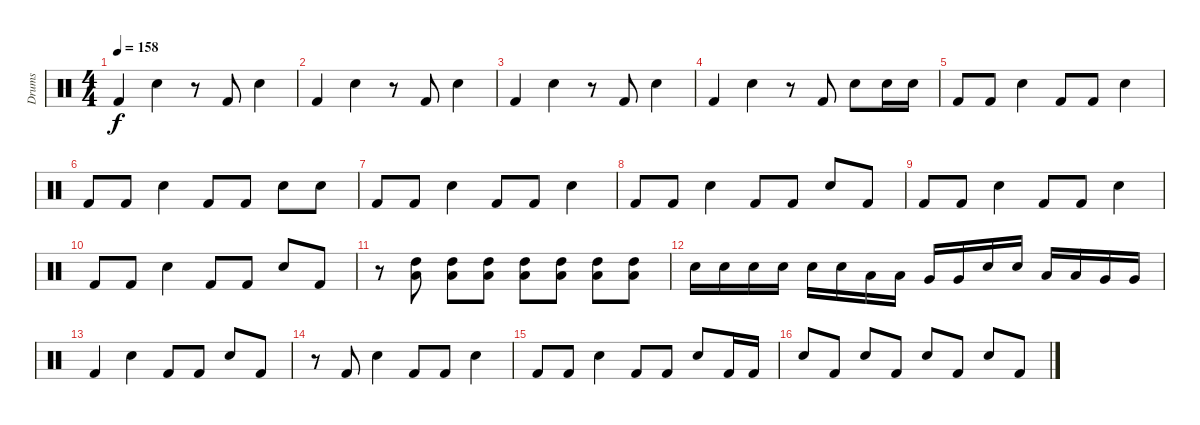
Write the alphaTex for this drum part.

\track ("Drums" "Drums") {instrument percussion}
\staff {score}
\articulation defaults
\ts (4 4)
\tempo 158
\clef neutral
\ks c "Kick (hit) 2".4{dy f} "Snare (hit) 2".4
r.8 "Kick (hit) 2".8 "Snare (hit) 2".4 |
"Kick (hit) 2".4 "Snare (hit) 2".4 r.8 "Kick (hit) 2".8 "Snare (hit) 2".4 |
"Kick (hit) 2".4 "Snare (hit) 2".4 r.8 "Kick (hit) 2".8 "Snare (hit) 2".4 |
"Kick (hit) 2".4 "Snare (hit) 2".4 r.8 "Kick (hit) 2".8 "Snare (hit) 2".8 "Snare (hit) 2".16 "Snare (hit) 2".16 |
"Kick (hit) 2".8 "Kick (hit) 2".8 "Snare (hit) 2".4 "Kick (hit) 2".8 "Kick (hit) 2".8 "Snare (hit) 2".4 |
"Kick (hit) 2".8 "Kick (hit) 2".8 "Snare (hit) 2".4 "Kick (hit) 2".8 "Kick (hit) 2".8 "Snare (hit) 2".8 "Snare (hit) 2".8 |
"Kick (hit) 2".8 "Kick (hit) 2".8 "Snare (hit) 2".4 "Kick (hit) 2".8 "Kick (hit) 2".8 "Snare (hit) 2".4 |
"Kick (hit) 2".8 "Kick (hit) 2".8 "Snare (hit) 2".4 "Kick (hit) 2".8 "Kick (hit) 2".8 "Snare (hit) 2".8 "Kick (hit) 2".8 |
"Kick (hit) 2".8 "Kick (hit) 2".8 "Snare (hit) 2".4 "Kick (hit) 2".8 "Kick (hit) 2".8 "Snare (hit) 2".4 |
"Kick (hit) 2".8 "Kick (hit) 2".8 "Snare (hit) 2".4 "Kick (hit) 2".8 "Kick (hit) 2".8 "Snare (hit) 2".8 "Kick (hit) 2".8 |
r.8 ("High Tom (hit)" "Low Tom (hit)").8 ("Low Tom (hit)" "High Tom (hit)").8 ("Low Tom (hit)" "High Tom (hit)").8 ("Low Tom (hit)" "High Tom (hit)").8 ("Low Tom (hit)" "High Tom (hit)").8 ("Low Tom (hit)" "High Tom (hit)").8 ("Low Tom (hit)" "High Tom (hit)").8 |
"Snare (hit) 2".16 "Snare (hit) 2".16 "Snare (hit) 2".16 "Snare (hit) 2".16 "Snare (hit) 2".16 "Snare (hit) 2".16 "Low Tom (hit)".16 "Low Tom (hit)".16 "Very Low Tom (hit)".16 "Very Low Tom (hit)".16 "Snare (hit) 2".16 "Snare (hit) 2".16 "Low Tom (hit)".16 "Low Tom (hit)".16 "Very Low Tom (hit)".16 "Very Low Tom (hit)".16 |
"Kick (hit) 2".4 "Snare (hit) 2".4 "Kick (hit) 2".8 "Kick (hit) 2".8 "Snare (hit) 2".8 "Kick (hit) 2".8 |
r.8 "Kick (hit) 2".8 "Snare (hit) 2".4 "Kick (hit) 2".8 "Kick (hit) 2".8 "Snare (hit) 2".4 |
"Kick (hit) 2".8 "Kick (hit) 2".8 "Snare (hit) 2".4 "Kick (hit) 2".8 "Kick (hit) 2".8 "Snare (hit) 2".8 "Kick (hit) 2".16 "Kick (hit) 2".16 |
"Snare (hit) 2".8 "Kick (hit) 2".8 "Snare (hit) 2".8 "Kick (hit) 2".8 "Snare (hit) 2".8 "Kick (hit) 2".8 "Snare (hit) 2".8 "Kick (hit) 2".8
